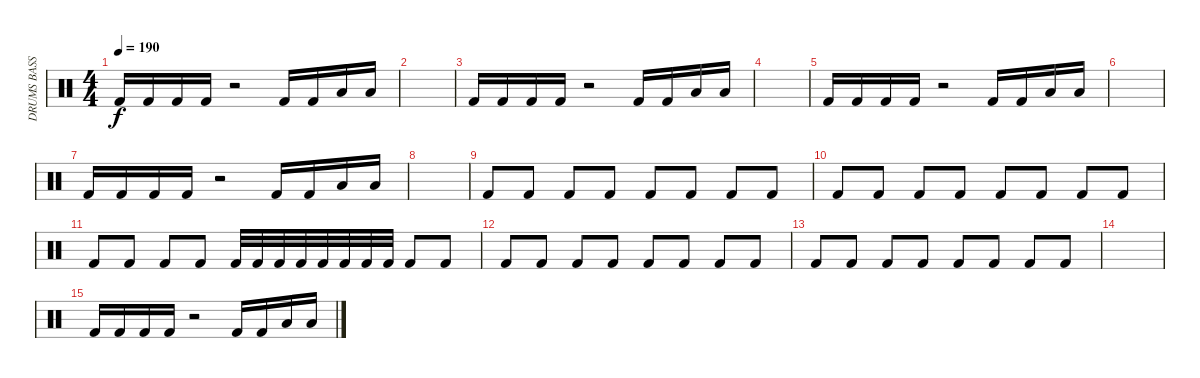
\track ("DRUMS BASS" "DRUMS BASS") {instrument percussion}
\staff {score}
\articulation defaults
\ts (4 4)
\tempo 190
\clef neutral
\ks c "Kick (hit) 2".16{dy f} "Kick (hit) 2".16 "Kick (hit) 2".16 "Kick (hit) 2".16
r.2 "Kick (hit) 2".16 "Kick (hit) 2".16 "Low Tom (hit)".16 "Low Tom (hit)".16 |
|
"Kick (hit) 2".16 "Kick (hit) 2".16 "Kick (hit) 2".16 "Kick (hit) 2".16 r.2 "Kick (hit) 2".16 "Kick (hit) 2".16 "Low Tom (hit)".16 "Low Tom (hit)".16 |
|
"Kick (hit) 2".16 "Kick (hit) 2".16 "Kick (hit) 2".16 "Kick (hit) 2".16 r.2 "Kick (hit) 2".16 "Kick (hit) 2".16 "Low Tom (hit)".16 "Low Tom (hit)".16 |
|
"Kick (hit) 2".16 "Kick (hit) 2".16 "Kick (hit) 2".16 "Kick (hit) 2".16 r.2 "Kick (hit) 2".16 "Kick (hit) 2".16 "Low Tom (hit)".16 "Low Tom (hit)".16 |
|
"Kick (hit) 2".8 "Kick (hit) 2".8 "Kick (hit) 2".8 "Kick (hit) 2".8 "Kick (hit) 2".8 "Kick (hit) 2".8 "Kick (hit) 2".8 "Kick (hit) 2".8 |
"Kick (hit) 2".8 "Kick (hit) 2".8 "Kick (hit) 2".8 "Kick (hit) 2".8 "Kick (hit) 2".8 "Kick (hit) 2".8 "Kick (hit) 2".8 "Kick (hit) 2".8 |
"Kick (hit) 2".8 "Kick (hit) 2".8 "Kick (hit) 2".8 "Kick (hit) 2".8 "Kick (hit) 2".32 "Kick (hit) 2".32 "Kick (hit) 2".32 "Kick (hit) 2".32 "Kick (hit) 2".32 "Kick (hit) 2".32 "Kick (hit) 2".32 "Kick (hit) 2".32 "Kick (hit) 2".8 "Kick (hit) 2".8 |
"Kick (hit) 2".8 "Kick (hit) 2".8 "Kick (hit) 2".8 "Kick (hit) 2".8 "Kick (hit) 2".8 "Kick (hit) 2".8 "Kick (hit) 2".8 "Kick (hit) 2".8 |
"Kick (hit) 2".8 "Kick (hit) 2".8 "Kick (hit) 2".8 "Kick (hit) 2".8 "Kick (hit) 2".8 "Kick (hit) 2".8 "Kick (hit) 2".8 "Kick (hit) 2".8 |
|
"Kick (hit) 2".16 "Kick (hit) 2".16 "Kick (hit) 2".16 "Kick (hit) 2".16 r.2 "Kick (hit) 2".16 "Kick (hit) 2".16 "Low Tom (hit)".16 "Low Tom (hit)".16
